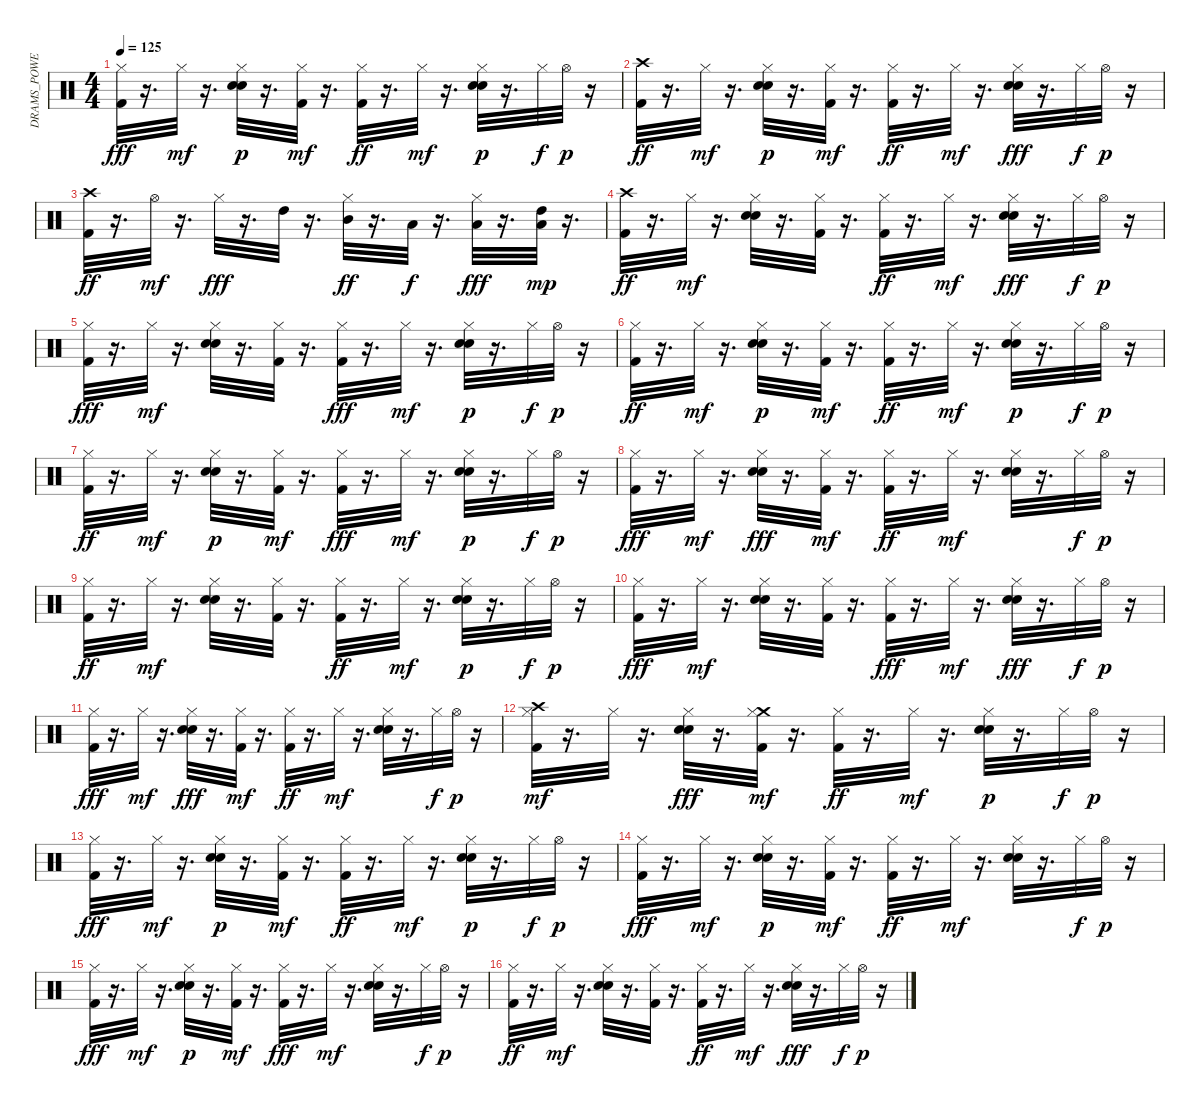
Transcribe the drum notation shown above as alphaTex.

\track ("DRAMS_POWER" "DRAMS_POWE") {instrument percussion}
\staff {score}
\articulation defaults
\ts (4 4)
\tempo 125
\clef neutral
\ks c
("Kick (hit) 2" "Hi-Hat (closed)").32{dy fff} r.16{d} "Hi-Hat (closed)".32{dy mf} r.16{d} ("Hi-Hat (closed)" "Electric Snare (hit)" "Snare (hit) 2").32{dy p} r.16{d} ("Hi-Hat (closed)" "Kick (hit) 2").32{dy mf} r.16{d} ("Hi-Hat (closed)" "Kick (hit) 2").32{dy ff} r.16{d} "Hi-Hat (closed)".32{dy mf} r.16{d} ("Hi-Hat (closed)" "Electric Snare (hit)" "Snare (hit) 2").32{dy p} r.16{d} "Hi-Hat (closed)".32{dy f} "Hi-Hat (open)".32{dy p} r.16 |
("Crash high (hit)" "Kick (hit) 2").32{dy ff} r.16{d} "Hi-Hat (closed)".32{dy mf} r.16{d} ("Electric Snare (hit)" "Hi-Hat (closed)" "Snare (hit) 2").32{dy p} r.16{d} ("Kick (hit) 2" "Hi-Hat (closed)").32{dy mf} r.16{d} ("Hi-Hat (closed)" "Kick (hit) 2").32{dy ff} r.16{d} "Hi-Hat (closed)".32{dy mf} r.16{d} ("Snare (hit) 2" "Hi-Hat (closed)" "Electric Snare (hit)").32{dy fff} r.16{d} "Hi-Hat (closed)".32{dy f} "Hi-Hat (open)".32{dy p} r.16 |
("Crash high (hit)" "Kick (hit) 2").32{dy ff} r.16{d} "Hi-Hat (open)".32{dy mf} r.16{d} "Hi-Hat (closed)".32{dy fff} r.16{d} "High Tom (hit)".32 r.16{d} ("Mid Tom (hit)" "Hi-Hat (closed)").32{dy ff} r.16{d} "Low Tom (hit)".32{dy f} r.16{d} ("Hi-Hat (closed)" "Low Tom (hit)").32{dy fff} r.16{d} ("High Tom (hit)" "Low Floor Tom (hit)").32{dy mp} r.16{d} |
("Crash high (hit)" "Kick (hit) 2").32{dy ff} r.16{d} "Hi-Hat (closed)".32{dy mf} r.16{d} ("Electric Snare (hit)" "Snare (hit) 2" "Hi-Hat (closed)").32 r.16{d} ("Kick (hit) 2" "Hi-Hat (closed)").32 r.16{d} ("Hi-Hat (closed)" "Kick (hit) 2").32{dy ff} r.16{d} "Hi-Hat (closed)".32{dy mf} r.16{d} ("Snare (hit) 2" "Hi-Hat (closed)" "Electric Snare (hit)").32{dy fff} r.16{d} "Hi-Hat (closed)".32{dy f} "Hi-Hat (open)".32{dy p} r.16 |
("Kick (hit) 2" "Hi-Hat (closed)").32{dy fff} r.16{d} "Hi-Hat (closed)".32{dy mf} r.16{d} ("Electric Snare (hit)" "Snare (hit) 2" "Hi-Hat (closed)").32 r.16{d} ("Hi-Hat (closed)" "Kick (hit) 2").32 r.16{d} ("Kick (hit) 2" "Hi-Hat (closed)").32{dy fff} r.16{d} "Hi-Hat (closed)".32{dy mf} r.16{d} ("Electric Snare (hit)" "Hi-Hat (closed)" "Snare (hit) 2").32{dy p} r.16{d} "Hi-Hat (closed)".32{dy f} "Hi-Hat (open)".32{dy p} r.16 |
("Hi-Hat (closed)" "Kick (hit) 2").32{dy ff} r.16{d} "Hi-Hat (closed)".32{dy mf} r.16{d} ("Electric Snare (hit)" "Hi-Hat (closed)" "Snare (hit) 2").32{dy p} r.16{d} ("Kick (hit) 2" "Hi-Hat (closed)").32{dy mf} r.16{d} ("Hi-Hat (closed)" "Kick (hit) 2").32{dy ff} r.16{d} "Hi-Hat (closed)".32{dy mf} r.16{d} ("Hi-Hat (closed)" "Electric Snare (hit)" "Snare (hit) 2").32{dy p} r.16{d} "Hi-Hat (closed)".32{dy f} "Hi-Hat (open)".32{dy p} r.16 |
("Hi-Hat (closed)" "Kick (hit) 2").32{dy ff} r.16{d} "Hi-Hat (closed)".32{dy mf} r.16{d} ("Hi-Hat (closed)" "Electric Snare (hit)" "Snare (hit) 2").32{dy p} r.16{d} ("Hi-Hat (closed)" "Kick (hit) 2").32{dy mf} r.16{d} ("Kick (hit) 2" "Hi-Hat (closed)").32{dy fff} r.16{d} "Hi-Hat (closed)".32{dy mf} r.16{d} ("Electric Snare (hit)" "Hi-Hat (closed)" "Snare (hit) 2").32{dy p} r.16{d} "Hi-Hat (closed)".32{dy f} "Hi-Hat (open)".32{dy p} r.16 |
("Kick (hit) 2" "Hi-Hat (closed)").32{dy fff} r.16{d} "Hi-Hat (closed)".32{dy mf} r.16{d} ("Hi-Hat (closed)" "Snare (hit) 2" "Electric Snare (hit)").32{dy fff} r.16{d} ("Hi-Hat (closed)" "Kick (hit) 2").32{dy mf} r.16{d} ("Hi-Hat (closed)" "Kick (hit) 2").32{dy ff} r.16{d} "Hi-Hat (closed)".32{dy mf} r.16{d} ("Snare (hit) 2" "Electric Snare (hit)" "Hi-Hat (closed)").32 r.16{d} "Hi-Hat (closed)".32{dy f} "Hi-Hat (open)".32{dy p} r.16 |
("Hi-Hat (closed)" "Kick (hit) 2").32{dy ff} r.16{d} "Hi-Hat (closed)".32{dy mf} r.16{d} ("Snare (hit) 2" "Electric Snare (hit)" "Hi-Hat (closed)").32 r.16{d} ("Hi-Hat (closed)" "Kick (hit) 2").32 r.16{d} ("Hi-Hat (closed)" "Kick (hit) 2").32{dy ff} r.16{d} "Hi-Hat (closed)".32{dy mf} r.16{d} ("Hi-Hat (closed)" "Electric Snare (hit)" "Snare (hit) 2").32{dy p} r.16{d} "Hi-Hat (closed)".32{dy f} "Hi-Hat (open)".32{dy p} r.16 |
("Kick (hit) 2" "Hi-Hat (closed)").32{dy fff} r.16{d} "Hi-Hat (closed)".32{dy mf} r.16{d} ("Electric Snare (hit)" "Snare (hit) 2" "Hi-Hat (closed)").32 r.16{d} ("Hi-Hat (closed)" "Kick (hit) 2").32 r.16{d} ("Kick (hit) 2" "Hi-Hat (closed)").32{dy fff} r.16{d} "Hi-Hat (closed)".32{dy mf} r.16{d} ("Hi-Hat (closed)" "Snare (hit) 2" "Electric Snare (hit)").32{dy fff} r.16{d} "Hi-Hat (closed)".32{dy f} "Hi-Hat (open)".32{dy p} r.16 |
("Kick (hit) 2" "Hi-Hat (closed)").32{dy fff} r.16{d} "Hi-Hat (closed)".32{dy mf} r.16{d} ("Snare (hit) 2" "Hi-Hat (closed)" "Electric Snare (hit)").32{dy fff} r.16{d} ("Hi-Hat (closed)" "Kick (hit) 2").32{dy mf} r.16{d} ("Hi-Hat (closed)" "Kick (hit) 2").32{dy ff} r.16{d} "Hi-Hat (closed)".32{dy mf} r.16{d} ("Snare (hit) 2" "Electric Snare (hit)" "Hi-Hat (closed)").32 r.16{d} "Hi-Hat (closed)".32{dy f} "Hi-Hat (open)".32{dy p} r.16 |
("Kick (hit) 2" "Hi-Hat (closed)" "Crash high (hit)").32{dy mf} r.16{d} "Hi-Hat (closed)".32 r.16{d} ("Snare (hit) 2" "Hi-Hat (closed)" "Electric Snare (hit)").32{dy fff} r.16{d} ("Kick (hit) 2" "Crash medium (hit)" "Hi-Hat (closed)").32{dy mf} r.16{d} ("Hi-Hat (closed)" "Kick (hit) 2").32{dy ff} r.16{d} "Hi-Hat (closed)".32{dy mf} r.16{d} ("Hi-Hat (closed)" "Electric Snare (hit)" "Snare (hit) 2").32{dy p} r.16{d} "Hi-Hat (closed)".32{dy f} "Hi-Hat (open)".32{dy p} r.16 |
("Kick (hit) 2" "Hi-Hat (closed)").32{dy fff} r.16{d} "Hi-Hat (closed)".32{dy mf} r.16{d} ("Electric Snare (hit)" "Hi-Hat (closed)" "Snare (hit) 2").32{dy p} r.16{d} ("Hi-Hat (closed)" "Kick (hit) 2").32{dy mf} r.16{d} ("Hi-Hat (closed)" "Kick (hit) 2").32{dy ff} r.16{d} "Hi-Hat (closed)".32{dy mf} r.16{d} ("Electric Snare (hit)" "Hi-Hat (closed)" "Snare (hit) 2").32{dy p} r.16{d} "Hi-Hat (closed)".32{dy f} "Hi-Hat (open)".32{dy p} r.16 |
("Kick (hit) 2" "Hi-Hat (closed)").32{dy fff} r.16{d} "Hi-Hat (closed)".32{dy mf} r.16{d} ("Hi-Hat (closed)" "Electric Snare (hit)" "Snare (hit) 2").32{dy p} r.16{d} ("Kick (hit) 2" "Hi-Hat (closed)").32{dy mf} r.16{d} ("Hi-Hat (closed)" "Kick (hit) 2").32{dy ff} r.16{d} "Hi-Hat (closed)".32{dy mf} r.16{d} ("Electric Snare (hit)" "Snare (hit) 2" "Hi-Hat (closed)").32 r.16{d} "Hi-Hat (closed)".32{dy f} "Hi-Hat (open)".32{dy p} r.16 |
("Kick (hit) 2" "Hi-Hat (closed)").32{dy fff} r.16{d} "Hi-Hat (closed)".32{dy mf} r.16{d} ("Electric Snare (hit)" "Hi-Hat (closed)" "Snare (hit) 2").32{dy p} r.16{d} ("Kick (hit) 2" "Hi-Hat (closed)").32{dy mf} r.16{d} ("Kick (hit) 2" "Hi-Hat (closed)").32{dy fff} r.16{d} "Hi-Hat (closed)".32{dy mf} r.16{d} ("Snare (hit) 2" "Electric Snare (hit)" "Hi-Hat (closed)").32 r.16{d} "Hi-Hat (closed)".32{dy f} "Hi-Hat (open)".32{dy p} r.16 |
("Hi-Hat (closed)" "Kick (hit) 2").32{dy ff} r.16{d} "Hi-Hat (closed)".32{dy mf} r.16{d} ("Snare (hit) 2" "Electric Snare (hit)" "Hi-Hat (closed)").32 r.16{d} ("Hi-Hat (closed)" "Kick (hit) 2").32 r.16{d} ("Hi-Hat (closed)" "Kick (hit) 2").32{dy ff} r.16{d} "Hi-Hat (closed)".32{dy mf} r.16{d} ("Snare (hit) 2" "Hi-Hat (closed)" "Electric Snare (hit)").32{dy fff} r.16{d} "Hi-Hat (closed)".32{dy f} "Hi-Hat (open)".32{dy p} r.16
